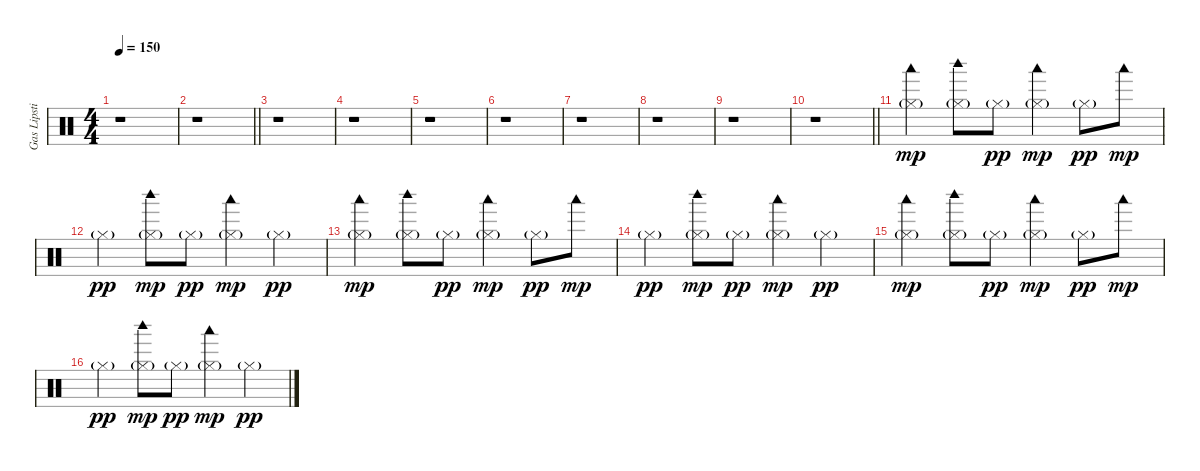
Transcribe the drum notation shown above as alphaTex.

\track ("Gas Lipstick" "Gas Lipsti") {instrument percussion}
\staff {score}
\articulation defaults
\ts (4 4)
\tempo 150
\clef neutral
\ks c
r.1{dy pp} |
\barLineRight lightlight
r.1 |
r.1 |
r.1 |
r.1 |
r.1 |
r.1 |
r.1 |
r.1 |
\barLineRight lightlight
r.1 |
("Hi-Hat (closed)"{g} "Woodblock low (hit)").4{dy mp} ("Hi-Hat (closed)"{g} "Woodblock high (hit)").8 "Hi-Hat (closed)"{g}.8{dy pp} ("Hi-Hat (closed)"{g} "Woodblock low (hit)").4{dy mp} "Hi-Hat (closed)"{g}.8{dy pp} "Woodblock low (hit)".8{dy mp} |
"Hi-Hat (closed)"{g}.4{dy pp} ("Hi-Hat (closed)"{g} "Woodblock high (hit)").8{dy mp} "Hi-Hat (closed)"{g}.8{dy pp} ("Hi-Hat (closed)"{g} "Woodblock low (hit)").4{dy mp} "Hi-Hat (closed)"{g}.4{dy pp} |
("Hi-Hat (closed)"{g} "Woodblock low (hit)").4{dy mp} ("Hi-Hat (closed)"{g} "Woodblock high (hit)").8 "Hi-Hat (closed)"{g}.8{dy pp} ("Hi-Hat (closed)"{g} "Woodblock low (hit)").4{dy mp} "Hi-Hat (closed)"{g}.8{dy pp} "Woodblock low (hit)".8{dy mp} |
"Hi-Hat (closed)"{g}.4{dy pp} ("Hi-Hat (closed)"{g} "Woodblock high (hit)").8{dy mp} "Hi-Hat (closed)"{g}.8{dy pp} ("Hi-Hat (closed)"{g} "Woodblock low (hit)").4{dy mp} "Hi-Hat (closed)"{g}.4{dy pp} |
("Hi-Hat (closed)"{g} "Woodblock low (hit)").4{dy mp} ("Hi-Hat (closed)"{g} "Woodblock high (hit)").8 "Hi-Hat (closed)"{g}.8{dy pp} ("Hi-Hat (closed)"{g} "Woodblock low (hit)").4{dy mp} "Hi-Hat (closed)"{g}.8{dy pp} "Woodblock low (hit)".8{dy mp} |
"Hi-Hat (closed)"{g}.4{dy pp} ("Hi-Hat (closed)"{g} "Woodblock high (hit)").8{dy mp} "Hi-Hat (closed)"{g}.8{dy pp} ("Hi-Hat (closed)"{g} "Woodblock low (hit)").4{dy mp} "Hi-Hat (closed)"{g}.4{dy pp}
